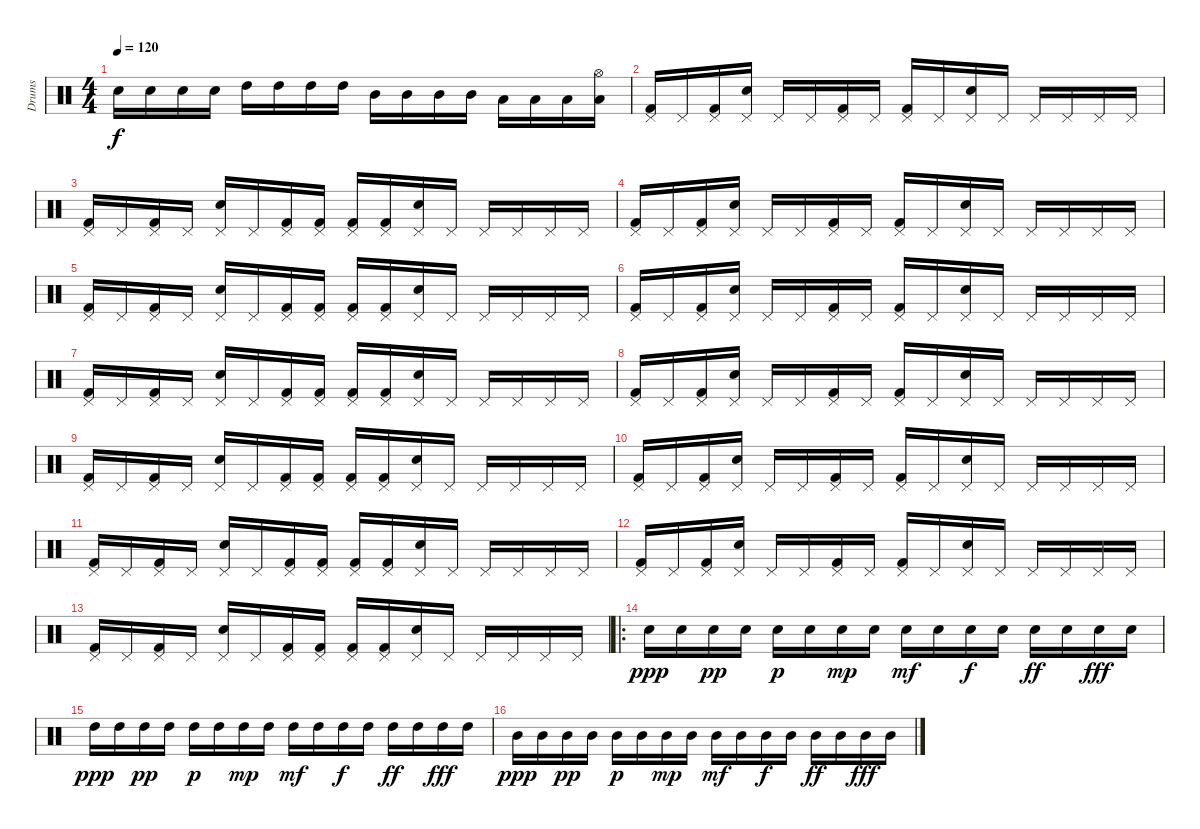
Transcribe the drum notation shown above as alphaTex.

\track ("Drums" "Drums") {instrument percussion}
\staff {score}
\articulation defaults
\ts (4 4)
\tempo 120
\clef neutral
\ks c "Snare (hit) 2".16{dy f} "Snare (hit) 2".16 "Snare (hit) 2".16 "Snare (hit) 2".16 "High Tom (hit)".16 "High Tom (hit)".16 "High Tom (hit)".16 "High Tom (hit)".16 "Mid Tom (hit)".16 "Mid Tom (hit)".16 "Mid Tom (hit)".16 "Mid Tom (hit)".16 "Low Tom (hit)".16 "Low Tom (hit)".16 "Low Tom (hit)".16
("Hi-Hat (open)" "Low Tom (hit)").16 |
("Pedal Hi-Hat (hit)" "Kick (hit) 2").16 "Pedal Hi-Hat (hit)".16 ("Pedal Hi-Hat (hit)" "Kick (hit) 2").16 ("Pedal Hi-Hat (hit)" "Snare (hit) 2").16 "Pedal Hi-Hat (hit)".16 "Pedal Hi-Hat (hit)".16 ("Pedal Hi-Hat (hit)" "Kick (hit) 2").16 "Pedal Hi-Hat (hit)".16 ("Pedal Hi-Hat (hit)" "Kick (hit) 2").16 "Pedal Hi-Hat (hit)".16 ("Pedal Hi-Hat (hit)" "Snare (hit) 2").16 "Pedal Hi-Hat (hit)".16 "Pedal Hi-Hat (hit)".16 "Pedal Hi-Hat (hit)".16 "Pedal Hi-Hat (hit)".16 "Pedal Hi-Hat (hit)".16 |
("Pedal Hi-Hat (hit)" "Kick (hit) 2").16 "Pedal Hi-Hat (hit)".16 ("Pedal Hi-Hat (hit)" "Kick (hit) 2").16 "Pedal Hi-Hat (hit)".16 ("Pedal Hi-Hat (hit)" "Snare (hit) 2").16 "Pedal Hi-Hat (hit)".16 ("Pedal Hi-Hat (hit)" "Kick (hit) 2").16 ("Pedal Hi-Hat (hit)" "Kick (hit) 2").16 ("Pedal Hi-Hat (hit)" "Kick (hit) 2").16 ("Pedal Hi-Hat (hit)" "Kick (hit) 2").16 ("Pedal Hi-Hat (hit)" "Snare (hit) 2").16 "Pedal Hi-Hat (hit)".16 "Pedal Hi-Hat (hit)".16 "Pedal Hi-Hat (hit)".16 "Pedal Hi-Hat (hit)".16 "Pedal Hi-Hat (hit)".16 |
("Pedal Hi-Hat (hit)" "Kick (hit) 2").16 "Pedal Hi-Hat (hit)".16 ("Pedal Hi-Hat (hit)" "Kick (hit) 2").16 ("Pedal Hi-Hat (hit)" "Snare (hit) 2").16 "Pedal Hi-Hat (hit)".16 "Pedal Hi-Hat (hit)".16 ("Pedal Hi-Hat (hit)" "Kick (hit) 2").16 "Pedal Hi-Hat (hit)".16 ("Pedal Hi-Hat (hit)" "Kick (hit) 2").16 "Pedal Hi-Hat (hit)".16 ("Pedal Hi-Hat (hit)" "Snare (hit) 2").16 "Pedal Hi-Hat (hit)".16 "Pedal Hi-Hat (hit)".16 "Pedal Hi-Hat (hit)".16 "Pedal Hi-Hat (hit)".16 "Pedal Hi-Hat (hit)".16 |
("Pedal Hi-Hat (hit)" "Kick (hit) 2").16 "Pedal Hi-Hat (hit)".16 ("Pedal Hi-Hat (hit)" "Kick (hit) 2").16 "Pedal Hi-Hat (hit)".16 ("Pedal Hi-Hat (hit)" "Snare (hit) 2").16 "Pedal Hi-Hat (hit)".16 ("Pedal Hi-Hat (hit)" "Kick (hit) 2").16 ("Pedal Hi-Hat (hit)" "Kick (hit) 2").16 ("Pedal Hi-Hat (hit)" "Kick (hit) 2").16 ("Pedal Hi-Hat (hit)" "Kick (hit) 2").16 ("Pedal Hi-Hat (hit)" "Snare (hit) 2").16 "Pedal Hi-Hat (hit)".16 "Pedal Hi-Hat (hit)".16 "Pedal Hi-Hat (hit)".16 "Pedal Hi-Hat (hit)".16 "Pedal Hi-Hat (hit)".16 |
("Pedal Hi-Hat (hit)" "Kick (hit) 2").16 "Pedal Hi-Hat (hit)".16 ("Pedal Hi-Hat (hit)" "Kick (hit) 2").16 ("Pedal Hi-Hat (hit)" "Snare (hit) 2").16 "Pedal Hi-Hat (hit)".16 "Pedal Hi-Hat (hit)".16 ("Pedal Hi-Hat (hit)" "Kick (hit) 2").16 "Pedal Hi-Hat (hit)".16 ("Pedal Hi-Hat (hit)" "Kick (hit) 2").16 "Pedal Hi-Hat (hit)".16 ("Pedal Hi-Hat (hit)" "Snare (hit) 2").16 "Pedal Hi-Hat (hit)".16 "Pedal Hi-Hat (hit)".16 "Pedal Hi-Hat (hit)".16 "Pedal Hi-Hat (hit)".16 "Pedal Hi-Hat (hit)".16 |
("Pedal Hi-Hat (hit)" "Kick (hit) 2").16 "Pedal Hi-Hat (hit)".16 ("Pedal Hi-Hat (hit)" "Kick (hit) 2").16 "Pedal Hi-Hat (hit)".16 ("Pedal Hi-Hat (hit)" "Snare (hit) 2").16 "Pedal Hi-Hat (hit)".16 ("Pedal Hi-Hat (hit)" "Kick (hit) 2").16 ("Pedal Hi-Hat (hit)" "Kick (hit) 2").16 ("Pedal Hi-Hat (hit)" "Kick (hit) 2").16 ("Pedal Hi-Hat (hit)" "Kick (hit) 2").16 ("Pedal Hi-Hat (hit)" "Snare (hit) 2").16 "Pedal Hi-Hat (hit)".16 "Pedal Hi-Hat (hit)".16 "Pedal Hi-Hat (hit)".16 "Pedal Hi-Hat (hit)".16 "Pedal Hi-Hat (hit)".16 |
("Pedal Hi-Hat (hit)" "Kick (hit) 2").16 "Pedal Hi-Hat (hit)".16 ("Pedal Hi-Hat (hit)" "Kick (hit) 2").16 ("Pedal Hi-Hat (hit)" "Snare (hit) 2").16 "Pedal Hi-Hat (hit)".16 "Pedal Hi-Hat (hit)".16 ("Pedal Hi-Hat (hit)" "Kick (hit) 2").16 "Pedal Hi-Hat (hit)".16 ("Pedal Hi-Hat (hit)" "Kick (hit) 2").16 "Pedal Hi-Hat (hit)".16 ("Pedal Hi-Hat (hit)" "Snare (hit) 2").16 "Pedal Hi-Hat (hit)".16 "Pedal Hi-Hat (hit)".16 "Pedal Hi-Hat (hit)".16 "Pedal Hi-Hat (hit)".16 "Pedal Hi-Hat (hit)".16 |
("Pedal Hi-Hat (hit)" "Kick (hit) 2").16 "Pedal Hi-Hat (hit)".16 ("Pedal Hi-Hat (hit)" "Kick (hit) 2").16 "Pedal Hi-Hat (hit)".16 ("Pedal Hi-Hat (hit)" "Snare (hit) 2").16 "Pedal Hi-Hat (hit)".16 ("Pedal Hi-Hat (hit)" "Kick (hit) 2").16 ("Pedal Hi-Hat (hit)" "Kick (hit) 2").16 ("Pedal Hi-Hat (hit)" "Kick (hit) 2").16 ("Pedal Hi-Hat (hit)" "Kick (hit) 2").16 ("Pedal Hi-Hat (hit)" "Snare (hit) 2").16 "Pedal Hi-Hat (hit)".16 "Pedal Hi-Hat (hit)".16 "Pedal Hi-Hat (hit)".16 "Pedal Hi-Hat (hit)".16 "Pedal Hi-Hat (hit)".16 |
("Pedal Hi-Hat (hit)" "Kick (hit) 2").16 "Pedal Hi-Hat (hit)".16 ("Pedal Hi-Hat (hit)" "Kick (hit) 2").16 ("Pedal Hi-Hat (hit)" "Snare (hit) 2").16 "Pedal Hi-Hat (hit)".16 "Pedal Hi-Hat (hit)".16 ("Pedal Hi-Hat (hit)" "Kick (hit) 2").16 "Pedal Hi-Hat (hit)".16 ("Pedal Hi-Hat (hit)" "Kick (hit) 2").16 "Pedal Hi-Hat (hit)".16 ("Pedal Hi-Hat (hit)" "Snare (hit) 2").16 "Pedal Hi-Hat (hit)".16 "Pedal Hi-Hat (hit)".16 "Pedal Hi-Hat (hit)".16 "Pedal Hi-Hat (hit)".16 "Pedal Hi-Hat (hit)".16 |
("Pedal Hi-Hat (hit)" "Kick (hit) 2").16 "Pedal Hi-Hat (hit)".16 ("Pedal Hi-Hat (hit)" "Kick (hit) 2").16 "Pedal Hi-Hat (hit)".16 ("Pedal Hi-Hat (hit)" "Snare (hit) 2").16 "Pedal Hi-Hat (hit)".16 ("Pedal Hi-Hat (hit)" "Kick (hit) 2").16 ("Pedal Hi-Hat (hit)" "Kick (hit) 2").16 ("Pedal Hi-Hat (hit)" "Kick (hit) 2").16 ("Pedal Hi-Hat (hit)" "Kick (hit) 2").16 ("Pedal Hi-Hat (hit)" "Snare (hit) 2").16 "Pedal Hi-Hat (hit)".16 "Pedal Hi-Hat (hit)".16 "Pedal Hi-Hat (hit)".16 "Pedal Hi-Hat (hit)".16 "Pedal Hi-Hat (hit)".16 |
("Pedal Hi-Hat (hit)" "Kick (hit) 2").16 "Pedal Hi-Hat (hit)".16 ("Pedal Hi-Hat (hit)" "Kick (hit) 2").16 ("Pedal Hi-Hat (hit)" "Snare (hit) 2").16 "Pedal Hi-Hat (hit)".16 "Pedal Hi-Hat (hit)".16 ("Pedal Hi-Hat (hit)" "Kick (hit) 2").16 "Pedal Hi-Hat (hit)".16 ("Pedal Hi-Hat (hit)" "Kick (hit) 2").16 "Pedal Hi-Hat (hit)".16 ("Pedal Hi-Hat (hit)" "Snare (hit) 2").16 "Pedal Hi-Hat (hit)".16 "Pedal Hi-Hat (hit)".16 "Pedal Hi-Hat (hit)".16 "Pedal Hi-Hat (hit)".16 "Pedal Hi-Hat (hit)".16 |
("Pedal Hi-Hat (hit)" "Kick (hit) 2").16 "Pedal Hi-Hat (hit)".16 ("Pedal Hi-Hat (hit)" "Kick (hit) 2").16 "Pedal Hi-Hat (hit)".16 ("Pedal Hi-Hat (hit)" "Snare (hit) 2").16 "Pedal Hi-Hat (hit)".16 ("Pedal Hi-Hat (hit)" "Kick (hit) 2").16 ("Pedal Hi-Hat (hit)" "Kick (hit) 2").16 ("Pedal Hi-Hat (hit)" "Kick (hit) 2").16 ("Pedal Hi-Hat (hit)" "Kick (hit) 2").16 ("Pedal Hi-Hat (hit)" "Snare (hit) 2").16 "Pedal Hi-Hat (hit)".16 "Pedal Hi-Hat (hit)".16 "Pedal Hi-Hat (hit)".16 "Pedal Hi-Hat (hit)".16 "Pedal Hi-Hat (hit)".16 |
\ro "Snare (hit) 2".16{dy ppp} "Snare (hit) 2".16 "Snare (hit) 2".16{dy pp} "Snare (hit) 2".16 "Snare (hit) 2".16{dy p} "Snare (hit) 2".16 "Snare (hit) 2".16{dy mp} "Snare (hit) 2".16 "Snare (hit) 2".16{dy mf} "Snare (hit) 2".16 "Snare (hit) 2".16{dy f} "Snare (hit) 2".16 "Snare (hit) 2".16{dy ff} "Snare (hit) 2".16 "Snare (hit) 2".16{dy fff} "Snare (hit) 2".16
|
"High Tom (hit)".16{dy ppp} "High Tom (hit)".16 "High Tom (hit)".16{dy pp} "High Tom (hit)".16 "High Tom (hit)".16{dy p} "High Tom (hit)".16 "High Tom (hit)".16{dy mp} "High Tom (hit)".16 "High Tom (hit)".16{dy mf} "High Tom (hit)".16 "High Tom (hit)".16{dy f} "High Tom (hit)".16 "High Tom (hit)".16{dy ff} "High Tom (hit)".16 "High Tom (hit)".16{dy fff} "High Tom (hit)".16 |
"Mid Tom (hit)".16{dy ppp} "Mid Tom (hit)".16 "Mid Tom (hit)".16{dy pp} "Mid Tom (hit)".16 "Mid Tom (hit)".16{dy p} "Mid Tom (hit)".16 "Mid Tom (hit)".16{dy mp} "Mid Tom (hit)".16 "Mid Tom (hit)".16{dy mf} "Mid Tom (hit)".16 "Mid Tom (hit)".16{dy f} "Mid Tom (hit)".16 "Mid Tom (hit)".16{dy ff} "Mid Tom (hit)".16 "Mid Tom (hit)".16{dy fff} "Mid Tom (hit)".16
